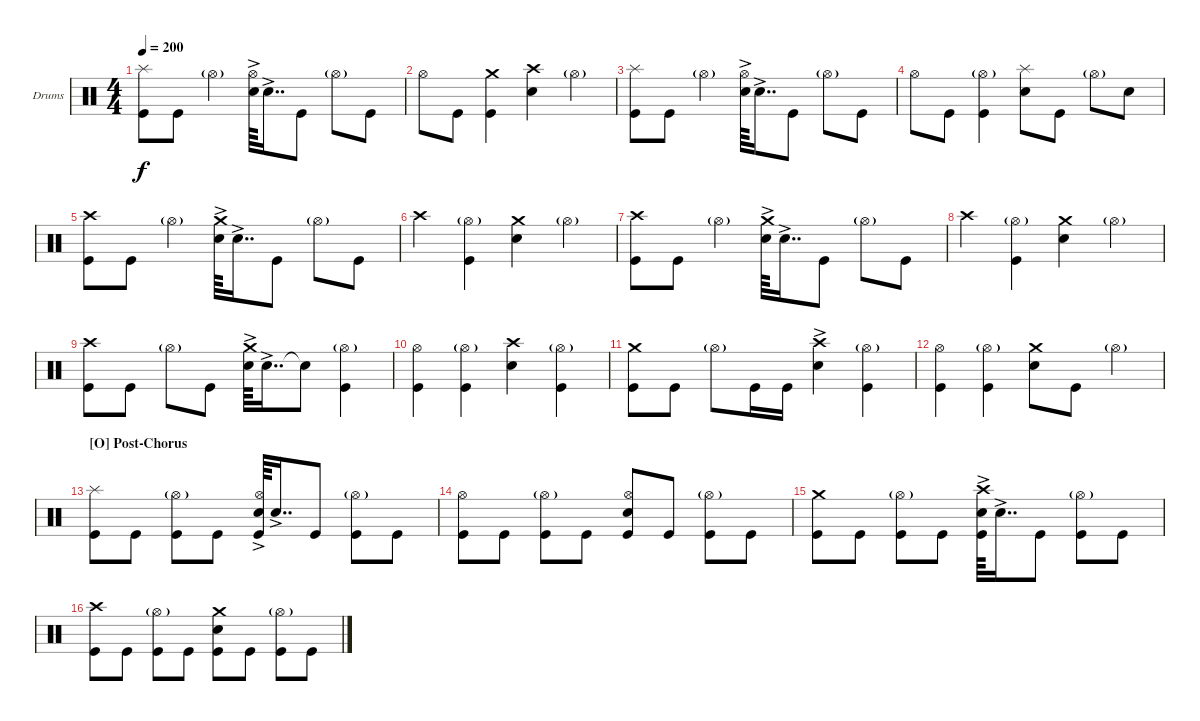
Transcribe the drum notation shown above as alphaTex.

\defaultSystemsLayout 4
\bracketExtendMode groupsimilarinstruments
\firstSystemTrackNameOrientation horizontal
\otherSystemsTrackNameOrientation horizontal
\track ("Drumkit" "Drums") {instrument percussion}
\staff {score}
\articulation defaults
\ts (4 4)
\tempo 200
\clef neutral
\ks c
("Kick (hit)" "Splash (hit)").8{dy f} "Kick (hit)".8 "Hi-Hat (open)"{g}.4 ("Hi-Hat (open)" "Snare (hit) 2"{ac}).64 "Snare (hit) 2"{ac}.16{dd} "Kick (hit)".8 "Hi-Hat (open)"{g}.8 "Kick (hit)".8 |
"Hi-Hat (open)".8 "Kick (hit)".8 ("Kick (hit)" "Crash medium (hit)").4 ("Snare (hit) 2" "Crash high (hit)").4 "Hi-Hat (open)"{g}.4 |
("Kick (hit)" "Splash (hit)").8 "Kick (hit)".8 "Hi-Hat (open)"{g}.4 ("Hi-Hat (open)" "Snare (hit) 2"{ac}).64 "Snare (hit) 2"{ac}.16{dd} "Kick (hit)".8 "Hi-Hat (open)"{g}.8 "Kick (hit)".8 |
"Hi-Hat (open)".8 "Kick (hit)".8 ("Kick (hit)" "Hi-Hat (open)"{g}).4 ("Snare (hit) 2" "Splash (hit)").8 "Kick (hit)".8 "Hi-Hat (open)"{g}.8 "Snare (hit) 2".8 |
("Kick (hit)" "Crash high (hit)").8 "Kick (hit)".8 "Hi-Hat (open)"{g}.4 ("Snare (hit) 2"{ac} "Crash medium (hit)").64 "Snare (hit) 2"{ac}.16{dd} "Kick (hit)".8 "Hi-Hat (open)"{g}.8 "Kick (hit)".8 |
"Crash high (hit)".4 ("Kick (hit)" "Hi-Hat (open)"{g}).4 ("Snare (hit) 2" "Crash medium (hit)").4 "Hi-Hat (open)"{g}.4 |
("Kick (hit)" "Crash high (hit)").8 "Kick (hit)".8 "Hi-Hat (open)"{g}.4 ("Snare (hit) 2"{ac} "Crash medium (hit)").64 "Snare (hit) 2"{ac}.16{dd} "Kick (hit)".8 "Hi-Hat (open)"{g}.8 "Kick (hit)".8 |
"Crash high (hit)".4 ("Kick (hit)" "Hi-Hat (open)"{g}).4 ("Snare (hit) 2" "Crash medium (hit)").4 "Hi-Hat (open)"{g}.4 |
("Kick (hit)" "Crash high (hit)").8 "Kick (hit)".8 "Hi-Hat (open)"{g}.8 "Kick (hit)".8 ("Snare (hit) 2"{ac} "Crash medium (hit)").64 "Snare (hit) 2"{ac}.16{dd} "Snare (hit) 2"{t}.8 ("Hi-Hat (open)"{g} "Kick (hit)").4 |
("Kick (hit)" "Hi-Hat (open)").4 ("Hi-Hat (open)"{g} "Kick (hit)").4 ("Crash high (hit)" "Snare (hit) 2").4 ("Hi-Hat (open)"{g} "Kick (hit)").4 |
("Kick (hit)" "Crash medium (hit)").8 "Kick (hit)".8 "Hi-Hat (open)"{g}.8 "Kick (hit)".16 "Kick (hit)".16 ("Snare (hit) 2"{ac} "Crash high (hit)").4 ("Hi-Hat (open)"{g} "Kick (hit)").4 |
("Kick (hit)" "Hi-Hat (open)").4 ("Hi-Hat (open)"{g} "Kick (hit)").4 ("Snare (hit) 2" "Crash medium (hit)").8 "Kick (hit)".8 "Hi-Hat (open)"{g}.4 |
\section ("O" "Post-Chorus")
("Splash (hit)" "Kick (hit)").8 "Kick (hit)".8 ("Kick (hit)" "Hi-Hat (open)"{g}).8 "Kick (hit)".8 ("Kick (hit)" "Snare (hit) 2"{ac} "Hi-Hat (open)").64 "Snare (hit) 2"{ac}.16{dd} "Kick (hit)".8 ("Kick (hit)" "Hi-Hat (open)"{g}).8 "Kick (hit)".8 |
("Kick (hit)" "Hi-Hat (open)").8 "Kick (hit)".8 ("Kick (hit)" "Hi-Hat (open)"{g}).8 "Kick (hit)".8 ("Kick (hit)" "Snare (hit) 2" "Hi-Hat (open)").8 "Kick (hit)".8 ("Kick (hit)" "Hi-Hat (open)"{g}).8 "Kick (hit)".8 |
("Kick (hit)" "Crash medium (hit)").8 "Kick (hit)".8 ("Kick (hit)" "Hi-Hat (open)"{g}).8 "Kick (hit)".8 ("Kick (hit)" "Snare (hit) 2"{ac} "Crash high (hit)").64 "Snare (hit) 2"{ac}.16{dd} "Kick (hit)".8 ("Kick (hit)" "Hi-Hat (open)"{g}).8 "Kick (hit)".8 |
("Kick (hit)" "Crash high (hit)").8 "Kick (hit)".8 ("Kick (hit)" "Hi-Hat (open)"{g}).8 "Kick (hit)".8 ("Kick (hit)" "Snare (hit) 2" "Crash medium (hit)").8 "Kick (hit)".8 ("Kick (hit)" "Hi-Hat (open)"{g}).8 "Kick (hit)".8
